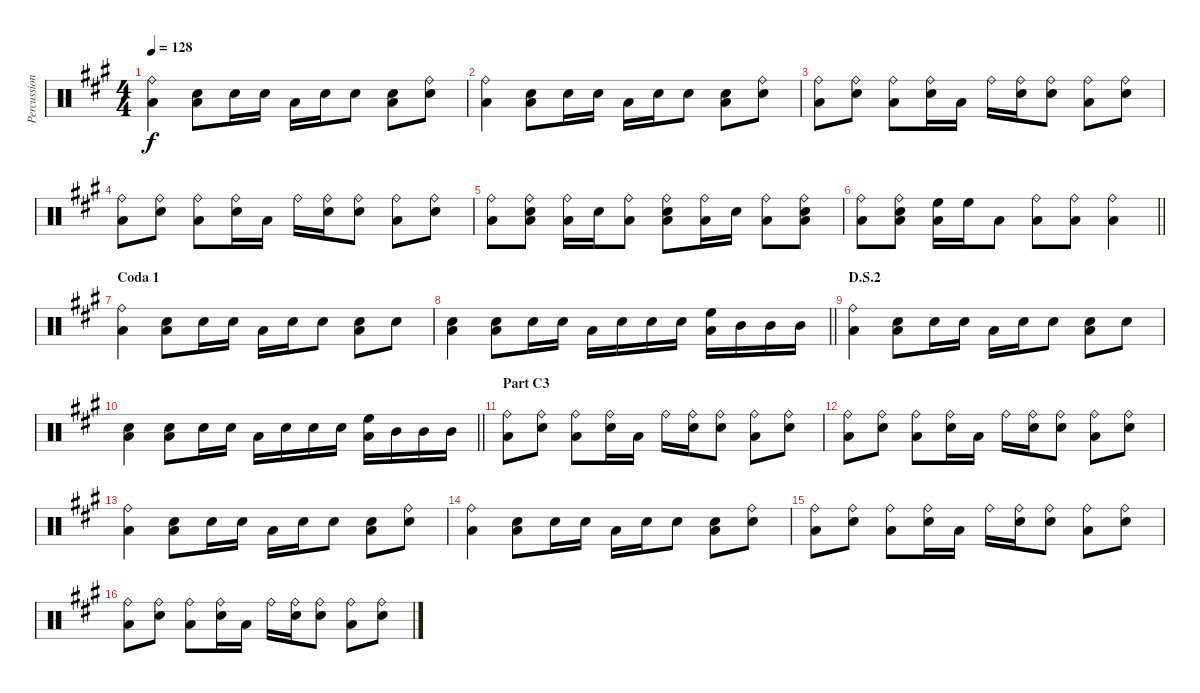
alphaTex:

\track ("Percussions" "Percussion") {instrument percussion}
\staff {score}
\articulation defaults
\ts (4 4)
\tempo 128
\clef neutral
\ks a
("Ride (bell)" "Low Floor Tom (hit)").4{dy f} ("Snare (hit) 2" "Low Floor Tom (hit)").8 "Snare (hit) 2".16 "Snare (hit) 2".16 "Low Floor Tom (hit)".16 "Snare (hit) 2".16 "Snare (hit) 2".8 ("Snare (hit) 2" "Low Floor Tom (hit)").8 ("Ride (bell)" "Snare (hit) 2").8 |
("Ride (bell)" "Low Floor Tom (hit)").4 ("Snare (hit) 2" "Low Floor Tom (hit)").8 "Snare (hit) 2".16 "Snare (hit) 2".16 "Low Floor Tom (hit)".16 "Snare (hit) 2".16 "Snare (hit) 2".8 ("Snare (hit) 2" "Low Floor Tom (hit)").8 ("Ride (bell)" "Snare (hit) 2").8 |
("Ride (bell)" "Low Floor Tom (hit)").8 ("Ride (bell)" "Snare (hit) 2").8 ("Ride (bell)" "Low Floor Tom (hit)").8 ("Ride (bell)" "Snare (hit) 2").16 "Low Floor Tom (hit)".16 "Ride (bell)".16 ("Ride (bell)" "Snare (hit) 2").16 ("Ride (bell)" "Snare (hit) 2").8 ("Ride (bell)" "Low Floor Tom (hit)").8 ("Ride (bell)" "Snare (hit) 2").8 |
("Ride (bell)" "Low Floor Tom (hit)").8 ("Ride (bell)" "Snare (hit) 2").8 ("Ride (bell)" "Low Floor Tom (hit)").8 ("Ride (bell)" "Snare (hit) 2").16 "Low Floor Tom (hit)".16 "Ride (bell)".16 ("Ride (bell)" "Snare (hit) 2").16 ("Ride (bell)" "Snare (hit) 2").8 ("Ride (bell)" "Low Floor Tom (hit)").8 ("Ride (bell)" "Snare (hit) 2").8 |
("Ride (bell)" "Low Floor Tom (hit)").8 ("Ride (bell)" "Snare (hit) 2" "Low Floor Tom (hit)").8 ("Ride (bell)" "Low Floor Tom (hit)").16 "Snare (hit) 2".16 ("Ride (bell)" "Low Floor Tom (hit)").8 ("Ride (bell)" "Snare (hit) 2" "Low Floor Tom (hit)").8 ("Ride (bell)" "Low Floor Tom (hit)").16 "Snare (hit) 2".16 ("Ride (bell)" "Low Floor Tom (hit)").8 ("Ride (bell)" "Snare (hit) 2" "Low Floor Tom (hit)").8 |
\barLineRight lightlight
("Ride (bell)" "Low Floor Tom (hit)").8 ("Ride (bell)" "Snare (hit) 2" "Low Floor Tom (hit)").8 ("High Floor Tom (hit)" "Low Floor Tom (hit)").16 "High Floor Tom (hit)".16 "Low Floor Tom (hit)".8 ("Ride (bell)" "Low Floor Tom (hit)").8 ("Ride (bell)" "Low Floor Tom (hit)").8 ("Ride (bell)" "Low Floor Tom (hit)").4 |
\section ("" "Coda 1")
("Ride (bell)" "Low Floor Tom (hit)").4 ("Low Floor Tom (hit)" "Snare (hit) 2").8 "Snare (hit) 2".16 "Snare (hit) 2".16 "Low Floor Tom (hit)".16 "Snare (hit) 2".16 "Snare (hit) 2".8 ("Low Floor Tom (hit)" "Snare (hit) 2").8 "Snare (hit) 2".8 |
\barLineRight lightlight
("Snare (hit) 2" "Low Floor Tom (hit)").4 ("Snare (hit) 2" "Low Floor Tom (hit)").8 "Snare (hit) 2".16 "Snare (hit) 2".16 "Low Floor Tom (hit)".16 "Snare (hit) 2".16 "Snare (hit) 2".16 "Snare (hit) 2".16 ("High Floor Tom (hit)" "Low Floor Tom (hit)").16 "Mid Tom (hit)".16 "Mid Tom (hit)".16 "Mid Tom (hit)".16 |
\section ("" "D.S.2")
("Ride (bell)" "Low Floor Tom (hit)").4 ("Low Floor Tom (hit)" "Snare (hit) 2").8 "Snare (hit) 2".16 "Snare (hit) 2".16 "Low Floor Tom (hit)".16 "Snare (hit) 2".16 "Snare (hit) 2".8 ("Low Floor Tom (hit)" "Snare (hit) 2").8 "Snare (hit) 2".8 |
\barLineRight lightlight
("Snare (hit) 2" "Low Floor Tom (hit)").4 ("Snare (hit) 2" "Low Floor Tom (hit)").8 "Snare (hit) 2".16 "Snare (hit) 2".16 "Low Floor Tom (hit)".16 "Snare (hit) 2".16 "Snare (hit) 2".16 "Snare (hit) 2".16 ("High Floor Tom (hit)" "Low Floor Tom (hit)").16 "Mid Tom (hit)".16 "Mid Tom (hit)".16 "Mid Tom (hit)".16 |
\section ("" "Part C3")
("Ride (bell)" "Low Floor Tom (hit)").8 ("Ride (bell)" "Snare (hit) 2").8 ("Ride (bell)" "Low Floor Tom (hit)").8 ("Ride (bell)" "Snare (hit) 2").16 "Low Floor Tom (hit)".16 "Ride (bell)".16 ("Ride (bell)" "Snare (hit) 2").16 ("Ride (bell)" "Snare (hit) 2").8 ("Ride (bell)" "Low Floor Tom (hit)").8 ("Ride (bell)" "Snare (hit) 2").8 |
("Ride (bell)" "Low Floor Tom (hit)").8 ("Ride (bell)" "Snare (hit) 2").8 ("Ride (bell)" "Low Floor Tom (hit)").8 ("Ride (bell)" "Snare (hit) 2").16 "Low Floor Tom (hit)".16 "Ride (bell)".16 ("Ride (bell)" "Snare (hit) 2").16 ("Ride (bell)" "Snare (hit) 2").8 ("Ride (bell)" "Low Floor Tom (hit)").8 ("Ride (bell)" "Snare (hit) 2").8 |
("Ride (bell)" "Low Floor Tom (hit)").4 ("Snare (hit) 2" "Low Floor Tom (hit)").8 "Snare (hit) 2".16 "Snare (hit) 2".16 "Low Floor Tom (hit)".16 "Snare (hit) 2".16 "Snare (hit) 2".8 ("Snare (hit) 2" "Low Floor Tom (hit)").8 ("Ride (bell)" "Snare (hit) 2").8 |
("Ride (bell)" "Low Floor Tom (hit)").4 ("Snare (hit) 2" "Low Floor Tom (hit)").8 "Snare (hit) 2".16 "Snare (hit) 2".16 "Low Floor Tom (hit)".16 "Snare (hit) 2".16 "Snare (hit) 2".8 ("Snare (hit) 2" "Low Floor Tom (hit)").8 ("Ride (bell)" "Snare (hit) 2").8 |
("Ride (bell)" "Low Floor Tom (hit)").8 ("Ride (bell)" "Snare (hit) 2").8 ("Ride (bell)" "Low Floor Tom (hit)").8 ("Ride (bell)" "Snare (hit) 2").16 "Low Floor Tom (hit)".16 "Ride (bell)".16 ("Ride (bell)" "Snare (hit) 2").16 ("Ride (bell)" "Snare (hit) 2").8 ("Ride (bell)" "Low Floor Tom (hit)").8 ("Ride (bell)" "Snare (hit) 2").8 |
("Ride (bell)" "Low Floor Tom (hit)").8 ("Ride (bell)" "Snare (hit) 2").8 ("Ride (bell)" "Low Floor Tom (hit)").8 ("Ride (bell)" "Snare (hit) 2").16 "Low Floor Tom (hit)".16 "Ride (bell)".16 ("Ride (bell)" "Snare (hit) 2").16 ("Ride (bell)" "Snare (hit) 2").8 ("Ride (bell)" "Low Floor Tom (hit)").8 ("Ride (bell)" "Snare (hit) 2").8
